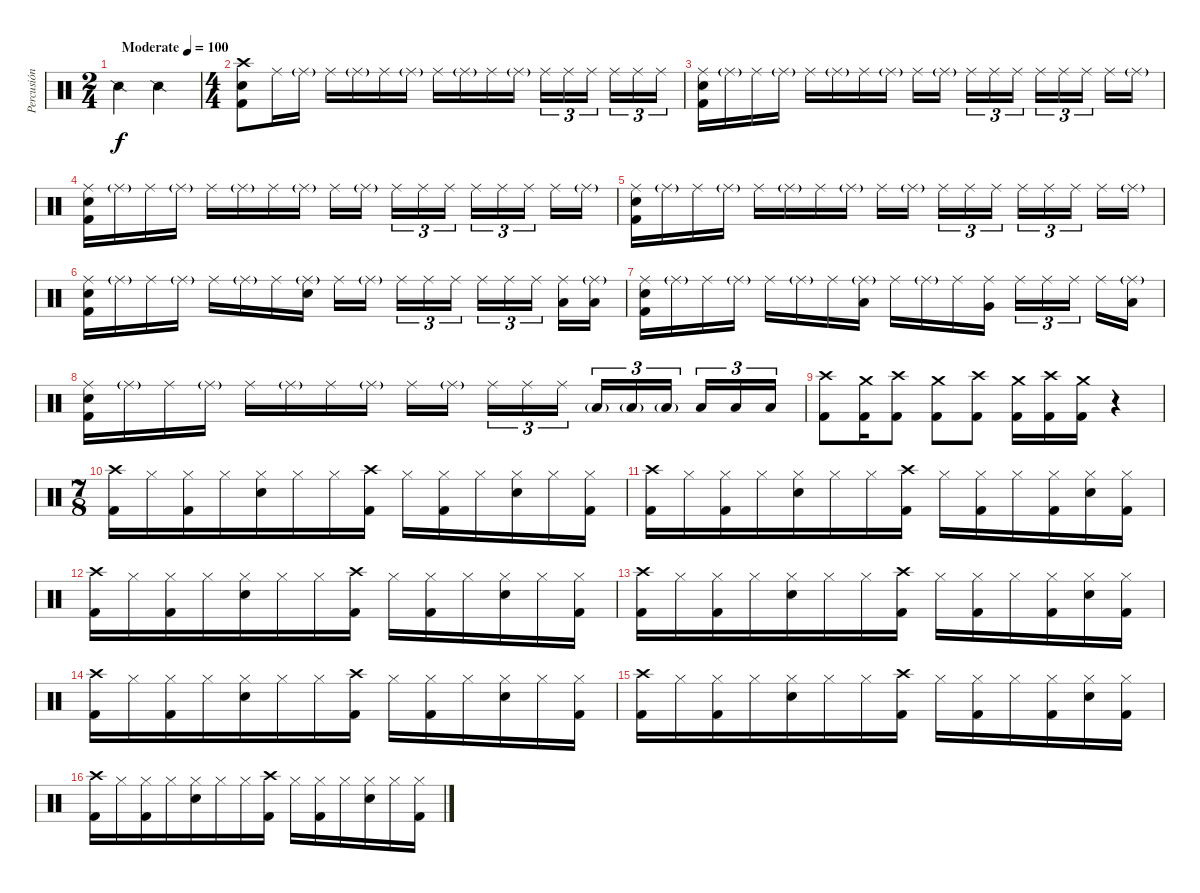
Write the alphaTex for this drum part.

\track ("Percusión" "Percusión") {instrument percussion}
\staff {score}
\articulation defaults
\ts (2 4)
\tempo (100 "Moderate")
\clef neutral
\ks c "Snare (side stick) 2".4{dy f} "Snare (side stick) 2".4
|
\ts (4 4)
("Crash high (hit)" "Snare (hit) 2" "Kick (hit) 2").8 "Ride (middle)".16 "Ride (middle)"{g}.16 "Ride (middle)".16 "Ride (middle)"{g}.16 "Ride (middle)".16 "Ride (middle)"{g}.16 "Ride (middle)".16 "Ride (middle)"{g}.16 "Ride (middle)".16 "Ride (middle)"{g}.16 "Ride (middle)".16{tu (3 2)} "Ride (middle)".16{tu (3 2)} "Ride (middle)".16{tu (3 2) beam splitsecondary} "Ride (middle)".16{tu (3 2)} "Ride (middle)".16{tu (3 2)} "Ride (middle)".16{tu (3 2)} |
("Ride (middle)" "Snare (hit) 2" "Kick (hit) 2").16 "Ride (middle)"{g}.16 "Ride (middle)".16 "Ride (middle)"{g}.16 "Ride (middle)".16 "Ride (middle)"{g}.16 "Ride (middle)".16 "Ride (middle)"{g}.16 "Ride (middle)".16 "Ride (middle)"{g}.16{beam splitsecondary} "Ride (middle)".16{tu (3 2)} "Ride (middle)".16{tu (3 2)} "Ride (middle)".16{tu (3 2)} "Ride (middle)".16{tu (3 2)} "Ride (middle)".16{tu (3 2)} "Ride (middle)".16{tu (3 2) beam splitsecondary} "Ride (middle)".16 "Ride (middle)"{g}.16 |
("Ride (middle)" "Snare (hit) 2" "Kick (hit) 2").16 "Ride (middle)"{g}.16 "Ride (middle)".16 "Ride (middle)"{g}.16 "Ride (middle)".16 "Ride (middle)"{g}.16 "Ride (middle)".16 "Ride (middle)"{g}.16 "Ride (middle)".16 "Ride (middle)"{g}.16{beam splitsecondary} "Ride (middle)".16{tu (3 2)} "Ride (middle)".16{tu (3 2)} "Ride (middle)".16{tu (3 2)} "Ride (middle)".16{tu (3 2)} "Ride (middle)".16{tu (3 2)} "Ride (middle)".16{tu (3 2) beam splitsecondary} "Ride (middle)".16 "Ride (middle)"{g}.16 |
("Ride (middle)" "Snare (hit) 2" "Kick (hit) 2").16 "Ride (middle)"{g}.16 "Ride (middle)".16 "Ride (middle)"{g}.16 "Ride (middle)".16 "Ride (middle)"{g}.16 "Ride (middle)".16 "Ride (middle)"{g}.16 "Ride (middle)".16 "Ride (middle)"{g}.16{beam splitsecondary} "Ride (middle)".16{tu (3 2)} "Ride (middle)".16{tu (3 2)} "Ride (middle)".16{tu (3 2)} "Ride (middle)".16{tu (3 2)} "Ride (middle)".16{tu (3 2)} "Ride (middle)".16{tu (3 2) beam splitsecondary} "Ride (middle)".16 "Ride (middle)"{g}.16 |
("Ride (middle)" "Snare (hit) 2" "Kick (hit) 2").16 "Ride (middle)"{g}.16 "Ride (middle)".16 "Ride (middle)"{g}.16 "Ride (middle)".16 "Ride (middle)"{g}.16 "Ride (middle)".16 ("Ride (middle)"{g} "Snare (hit) 2").16 "Ride (middle)".16 "Ride (middle)"{g}.16{beam splitsecondary} "Ride (middle)".16{tu (3 2)} "Ride (middle)".16{tu (3 2)} "Ride (middle)".16{tu (3 2)} "Ride (middle)".16{tu (3 2)} "Ride (middle)".16{tu (3 2)} "Ride (middle)".16{tu (3 2) beam splitsecondary} ("Ride (middle)" "Low Floor Tom (hit)").16 ("Ride (middle)"{g} "Low Floor Tom (hit)").16 |
("Ride (middle)" "Snare (hit) 2" "Kick (hit) 2").16 "Ride (middle)"{g}.16 "Ride (middle)".16 "Ride (middle)"{g}.16 "Ride (middle)".16 "Ride (middle)"{g}.16 "Ride (middle)".16 ("Ride (middle)"{g} "Low Tom (hit)").16 "Ride (middle)".16 "Ride (middle)"{g}.16 "Ride (middle)".16 ("Ride (middle)" "Very Low Tom (hit)").16 "Ride (middle)".16{tu (3 2)} "Ride (middle)".16{tu (3 2)} "Ride (middle)".16{tu (3 2) beam splitsecondary} "Ride (middle)".16 ("Ride (middle)"{g} "Low Floor Tom (hit)").16 |
("Ride (middle)" "Snare (hit) 2" "Kick (hit) 2").16 "Ride (middle)"{g}.16 "Ride (middle)".16 "Ride (middle)"{g}.16 "Ride (middle)".16 "Ride (middle)"{g}.16 "Ride (middle)".16 "Ride (middle)"{g}.16 "Ride (middle)".16 "Ride (middle)"{g}.16{beam splitsecondary} "Ride (middle)".16{tu (3 2)} "Ride (middle)".16{tu (3 2)} "Ride (middle)".16{tu (3 2)} "Low Floor Tom (hit)"{g}.16{tu (3 2)} "Low Floor Tom (hit)"{g}.16{tu (3 2)} "Low Floor Tom (hit)"{g}.16{tu (3 2) beam splitsecondary} "Low Floor Tom (hit)".16{tu (3 2)} "Low Floor Tom (hit)".16{tu (3 2)} "Low Floor Tom (hit)".16{tu (3 2)} |
("Crash high (hit)" "Kick (hit) 2").8 ("Crash medium (hit)" "Kick (hit) 2").16 ("Crash high (hit)" "Kick (hit) 2").8 ("Crash medium (hit)" "Kick (hit) 2").8 ("Crash high (hit)" "Kick (hit) 2").8 ("Crash medium (hit)" "Kick (hit) 2").16 ("Crash high (hit)" "Kick (hit) 2").16 ("Crash medium (hit)" "Kick (hit) 2").16 r.4 |
\ts (7 8)
("Crash high (hit)" "Kick (hit) 2").16 "Hi-Hat (closed)".16 ("Hi-Hat (closed)" "Kick (hit) 2").16 "Hi-Hat (closed)".16 ("Hi-Hat (closed)" "Electric Snare (hit)").16 "Hi-Hat (closed)".16 "Hi-Hat (closed)".16 ("Crash high (hit)" "Kick (hit) 2").16 "Hi-Hat (closed)".16 ("Hi-Hat (closed)" "Kick (hit) 2").16 "Hi-Hat (closed)".16 ("Hi-Hat (closed)" "Electric Snare (hit)").16 "Hi-Hat (closed)".16 ("Hi-Hat (closed)" "Kick (hit) 2").16 |
("Crash high (hit)" "Kick (hit) 2").16 "Hi-Hat (closed)".16 ("Hi-Hat (closed)" "Kick (hit) 2").16 "Hi-Hat (closed)".16 ("Hi-Hat (closed)" "Electric Snare (hit)").16 "Hi-Hat (closed)".16 "Hi-Hat (closed)".16 ("Crash high (hit)" "Kick (hit) 2").16 "Hi-Hat (closed)".16 ("Hi-Hat (closed)" "Kick (hit) 2").16 "Hi-Hat (closed)".16 ("Hi-Hat (closed)" "Kick (hit) 2").16 ("Hi-Hat (closed)" "Electric Snare (hit)").16 ("Hi-Hat (closed)" "Kick (hit) 2").16 |
("Crash high (hit)" "Kick (hit) 2").16 "Hi-Hat (closed)".16 ("Hi-Hat (closed)" "Kick (hit) 2").16 "Hi-Hat (closed)".16 ("Hi-Hat (closed)" "Electric Snare (hit)").16 "Hi-Hat (closed)".16 "Hi-Hat (closed)".16 ("Crash high (hit)" "Kick (hit) 2").16 "Hi-Hat (closed)".16 ("Hi-Hat (closed)" "Kick (hit) 2").16 "Hi-Hat (closed)".16 ("Hi-Hat (closed)" "Electric Snare (hit)").16 "Hi-Hat (closed)".16 ("Hi-Hat (closed)" "Kick (hit) 2").16 |
("Crash high (hit)" "Kick (hit) 2").16 "Hi-Hat (closed)".16 ("Hi-Hat (closed)" "Kick (hit) 2").16 "Hi-Hat (closed)".16 ("Hi-Hat (closed)" "Electric Snare (hit)").16 "Hi-Hat (closed)".16 "Hi-Hat (closed)".16 ("Crash high (hit)" "Kick (hit) 2").16 "Hi-Hat (closed)".16 ("Hi-Hat (closed)" "Kick (hit) 2").16 "Hi-Hat (closed)".16 ("Hi-Hat (closed)" "Kick (hit) 2").16 ("Hi-Hat (closed)" "Electric Snare (hit)").16 ("Hi-Hat (closed)" "Kick (hit) 2").16 |
("Crash high (hit)" "Kick (hit) 2").16 "Hi-Hat (closed)".16 ("Hi-Hat (closed)" "Kick (hit) 2").16 "Hi-Hat (closed)".16 ("Hi-Hat (closed)" "Electric Snare (hit)").16 "Hi-Hat (closed)".16 "Hi-Hat (closed)".16 ("Crash high (hit)" "Kick (hit) 2").16 "Hi-Hat (closed)".16 ("Hi-Hat (closed)" "Kick (hit) 2").16 "Hi-Hat (closed)".16 ("Hi-Hat (closed)" "Electric Snare (hit)").16 "Hi-Hat (closed)".16 ("Hi-Hat (closed)" "Kick (hit) 2").16 |
("Crash high (hit)" "Kick (hit) 2").16 "Hi-Hat (closed)".16 ("Hi-Hat (closed)" "Kick (hit) 2").16 "Hi-Hat (closed)".16 ("Hi-Hat (closed)" "Electric Snare (hit)").16 "Hi-Hat (closed)".16 "Hi-Hat (closed)".16 ("Crash high (hit)" "Kick (hit) 2").16 "Hi-Hat (closed)".16 ("Hi-Hat (closed)" "Kick (hit) 2").16 "Hi-Hat (closed)".16 ("Hi-Hat (closed)" "Kick (hit) 2").16 ("Hi-Hat (closed)" "Electric Snare (hit)").16 ("Hi-Hat (closed)" "Kick (hit) 2").16 |
("Crash high (hit)" "Kick (hit) 2").16 "Hi-Hat (closed)".16 ("Hi-Hat (closed)" "Kick (hit) 2").16 "Hi-Hat (closed)".16 ("Hi-Hat (closed)" "Electric Snare (hit)").16 "Hi-Hat (closed)".16 "Hi-Hat (closed)".16 ("Crash high (hit)" "Kick (hit) 2").16 "Hi-Hat (closed)".16 ("Hi-Hat (closed)" "Kick (hit) 2").16 "Hi-Hat (closed)".16 ("Hi-Hat (closed)" "Electric Snare (hit)").16 "Hi-Hat (closed)".16 ("Hi-Hat (closed)" "Kick (hit) 2").16
